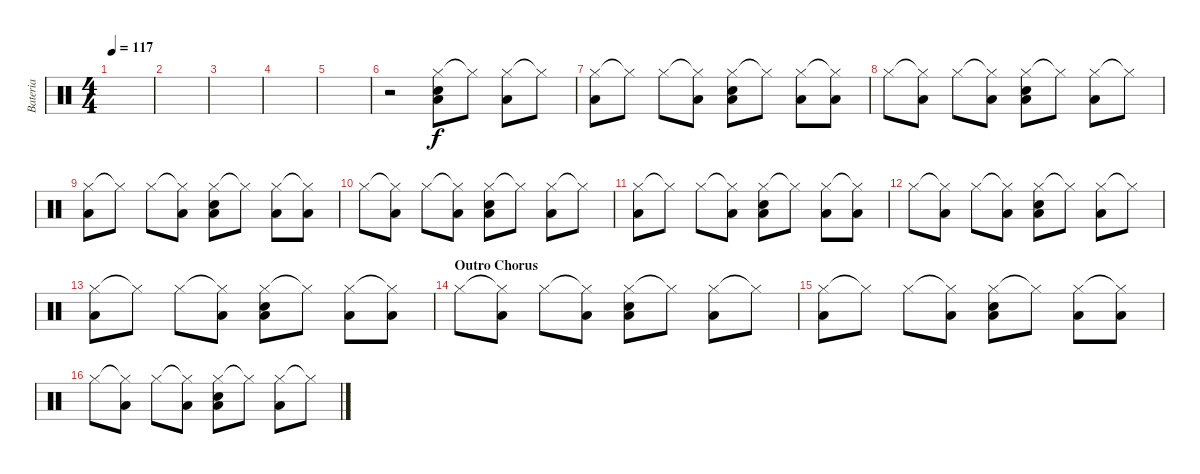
\track ("Bateria" "Bateria") {instrument percussion}
\staff {score}
\articulation defaults
\ts (4 4)
\tempo 117
\clef neutral
\ks c
|
|
|
|
|
r.2 ("Hi-Hat (closed)" "Snare (hit) 2" "Low Tom (hit)").8 "Hi-Hat (closed)"{t}.8 ("Hi-Hat (closed)" "Low Tom (hit)").8 "Hi-Hat (closed)"{t}.8 |
("Hi-Hat (closed)" "Low Tom (hit)").8 "Hi-Hat (closed)"{t}.8 "Hi-Hat (closed)".8 ("Hi-Hat (closed)"{t} "Low Tom (hit)").8 ("Hi-Hat (closed)" "Snare (hit) 2" "Low Tom (hit)").8 "Hi-Hat (closed)"{t}.8 ("Hi-Hat (closed)" "Low Tom (hit)").8 ("Hi-Hat (closed)"{t} "Low Tom (hit)").8 |
"Hi-Hat (closed)".8 ("Hi-Hat (closed)"{t} "Low Tom (hit)").8 "Hi-Hat (closed)".8 ("Hi-Hat (closed)"{t} "Low Tom (hit)").8 ("Hi-Hat (closed)" "Snare (hit) 2" "Low Tom (hit)").8 "Hi-Hat (closed)"{t}.8 ("Hi-Hat (closed)" "Low Tom (hit)").8 "Hi-Hat (closed)"{t}.8 |
("Hi-Hat (closed)" "Low Tom (hit)").8 "Hi-Hat (closed)"{t}.8 "Hi-Hat (closed)".8 ("Hi-Hat (closed)"{t} "Low Tom (hit)").8 ("Hi-Hat (closed)" "Snare (hit) 2" "Low Tom (hit)").8 "Hi-Hat (closed)"{t}.8 ("Hi-Hat (closed)" "Low Tom (hit)").8 ("Hi-Hat (closed)"{t} "Low Tom (hit)").8 |
"Hi-Hat (closed)".8 ("Hi-Hat (closed)"{t} "Low Tom (hit)").8 "Hi-Hat (closed)".8 ("Hi-Hat (closed)"{t} "Low Tom (hit)").8 ("Hi-Hat (closed)" "Snare (hit) 2" "Low Tom (hit)").8 "Hi-Hat (closed)"{t}.8 ("Hi-Hat (closed)" "Low Tom (hit)").8 "Hi-Hat (closed)"{t}.8 |
("Hi-Hat (closed)" "Low Tom (hit)").8 "Hi-Hat (closed)"{t}.8 "Hi-Hat (closed)".8 ("Hi-Hat (closed)"{t} "Low Tom (hit)").8 ("Hi-Hat (closed)" "Snare (hit) 2" "Low Tom (hit)").8 "Hi-Hat (closed)"{t}.8 ("Hi-Hat (closed)" "Low Tom (hit)").8 ("Hi-Hat (closed)"{t} "Low Tom (hit)").8 |
"Hi-Hat (closed)".8 ("Hi-Hat (closed)"{t} "Low Tom (hit)").8 "Hi-Hat (closed)".8 ("Hi-Hat (closed)"{t} "Low Tom (hit)").8 ("Hi-Hat (closed)" "Snare (hit) 2" "Low Tom (hit)").8 "Hi-Hat (closed)"{t}.8 ("Hi-Hat (closed)" "Low Tom (hit)").8 "Hi-Hat (closed)"{t}.8 |
("Hi-Hat (closed)" "Low Tom (hit)").8 "Hi-Hat (closed)"{t}.8 "Hi-Hat (closed)".8 ("Hi-Hat (closed)"{t} "Low Tom (hit)").8 ("Hi-Hat (closed)" "Snare (hit) 2" "Low Tom (hit)").8 "Hi-Hat (closed)"{t}.8 ("Hi-Hat (closed)" "Low Tom (hit)").8 ("Hi-Hat (closed)"{t} "Low Tom (hit)").8 |
\section ("" "Outro Chorus")
"Hi-Hat (closed)".8 ("Hi-Hat (closed)"{t} "Low Tom (hit)").8 "Hi-Hat (closed)".8 ("Hi-Hat (closed)"{t} "Low Tom (hit)").8 ("Hi-Hat (closed)" "Snare (hit) 2" "Low Tom (hit)").8 "Hi-Hat (closed)"{t}.8 ("Hi-Hat (closed)" "Low Tom (hit)").8 "Hi-Hat (closed)"{t}.8 |
("Hi-Hat (closed)" "Low Tom (hit)").8 "Hi-Hat (closed)"{t}.8 "Hi-Hat (closed)".8 ("Hi-Hat (closed)"{t} "Low Tom (hit)").8 ("Hi-Hat (closed)" "Snare (hit) 2" "Low Tom (hit)").8 "Hi-Hat (closed)"{t}.8 ("Hi-Hat (closed)" "Low Tom (hit)").8 ("Hi-Hat (closed)"{t} "Low Tom (hit)").8 |
"Hi-Hat (closed)".8 ("Hi-Hat (closed)"{t} "Low Tom (hit)").8 "Hi-Hat (closed)".8 ("Hi-Hat (closed)"{t} "Low Tom (hit)").8 ("Hi-Hat (closed)" "Snare (hit) 2" "Low Tom (hit)").8 "Hi-Hat (closed)"{t}.8 ("Hi-Hat (closed)" "Low Tom (hit)").8 "Hi-Hat (closed)"{t}.8
